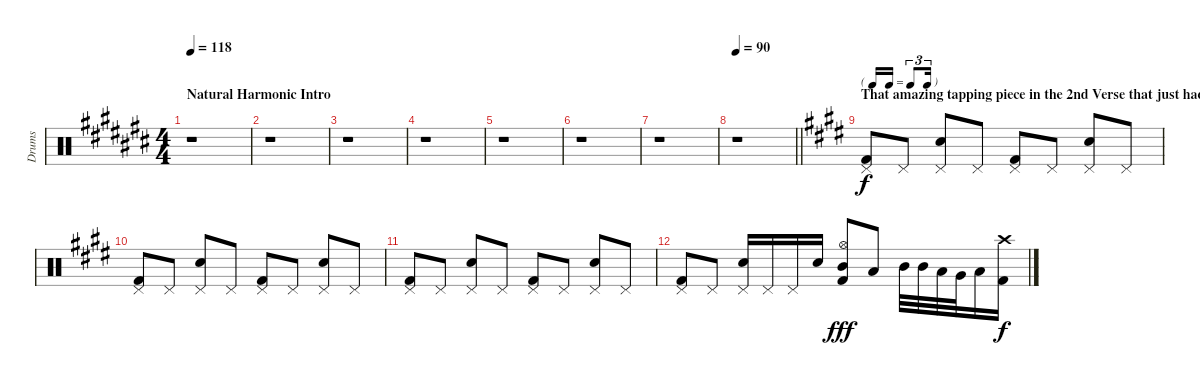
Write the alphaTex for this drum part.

\track ("Drums" "Drums") {instrument percussion}
\staff {score}
\articulation defaults
\ts (4 4)
\section ("" "Natural Harmonic Intro")
\tempo 118
\clef neutral
\ks c#
r.1{dy f} |
r.1 |
r.1 |
r.1 |
r.1 |
r.1 |
r.1 |
\tempo 90
\barLineRight lightlight
r.1 |
\tf triplet16th
\section ("" "That amazing tapping piece in the 2nd Verse that just had to be tabbed by someone...")
\ks c#minor
("Pedal Hi-Hat (hit)" "Kick (hit) 2").8 "Pedal Hi-Hat (hit)".8 ("Pedal Hi-Hat (hit)" "Snare (hit) 2").8 "Pedal Hi-Hat (hit)".8 ("Pedal Hi-Hat (hit)" "Kick (hit) 2").8 "Pedal Hi-Hat (hit)".8 ("Pedal Hi-Hat (hit)" "Snare (hit) 2").8 "Pedal Hi-Hat (hit)".8 |
("Pedal Hi-Hat (hit)" "Kick (hit) 2").8 "Pedal Hi-Hat (hit)".8 ("Pedal Hi-Hat (hit)" "Snare (hit) 2").8 "Pedal Hi-Hat (hit)".8 ("Pedal Hi-Hat (hit)" "Kick (hit) 2").8 "Pedal Hi-Hat (hit)".8 ("Pedal Hi-Hat (hit)" "Snare (hit) 2").8 "Pedal Hi-Hat (hit)".8 |
("Pedal Hi-Hat (hit)" "Kick (hit) 2").8 "Pedal Hi-Hat (hit)".8 ("Pedal Hi-Hat (hit)" "Snare (hit) 2").8 "Pedal Hi-Hat (hit)".8 ("Pedal Hi-Hat (hit)" "Kick (hit) 2").8 "Pedal Hi-Hat (hit)".8{volume 0} ("Pedal Hi-Hat (hit)" "Snare (hit) 2").8 "Pedal Hi-Hat (hit)".8 |
("Pedal Hi-Hat (hit)" "Kick (hit) 2").8 "Pedal Hi-Hat (hit)".8 ("Pedal Hi-Hat (hit)" "Snare (hit) 2").16 "Pedal Hi-Hat (hit)".16 "Pedal Hi-Hat (hit)".16 "Snare (hit) 2".16 ("Hi-Hat (open)" "Mid Tom (hit)" "Kick (hit) 2").8{dy fff} "Low Tom (hit)".8 "Mid Tom (hit)".32 "Mid Tom (hit)".32 "Low Tom (hit)".32 "Very Low Tom (hit)".32 "Low Floor Tom (hit)".16 ("Crash high (hit)" "Kick (hit) 2").16{dy f}
